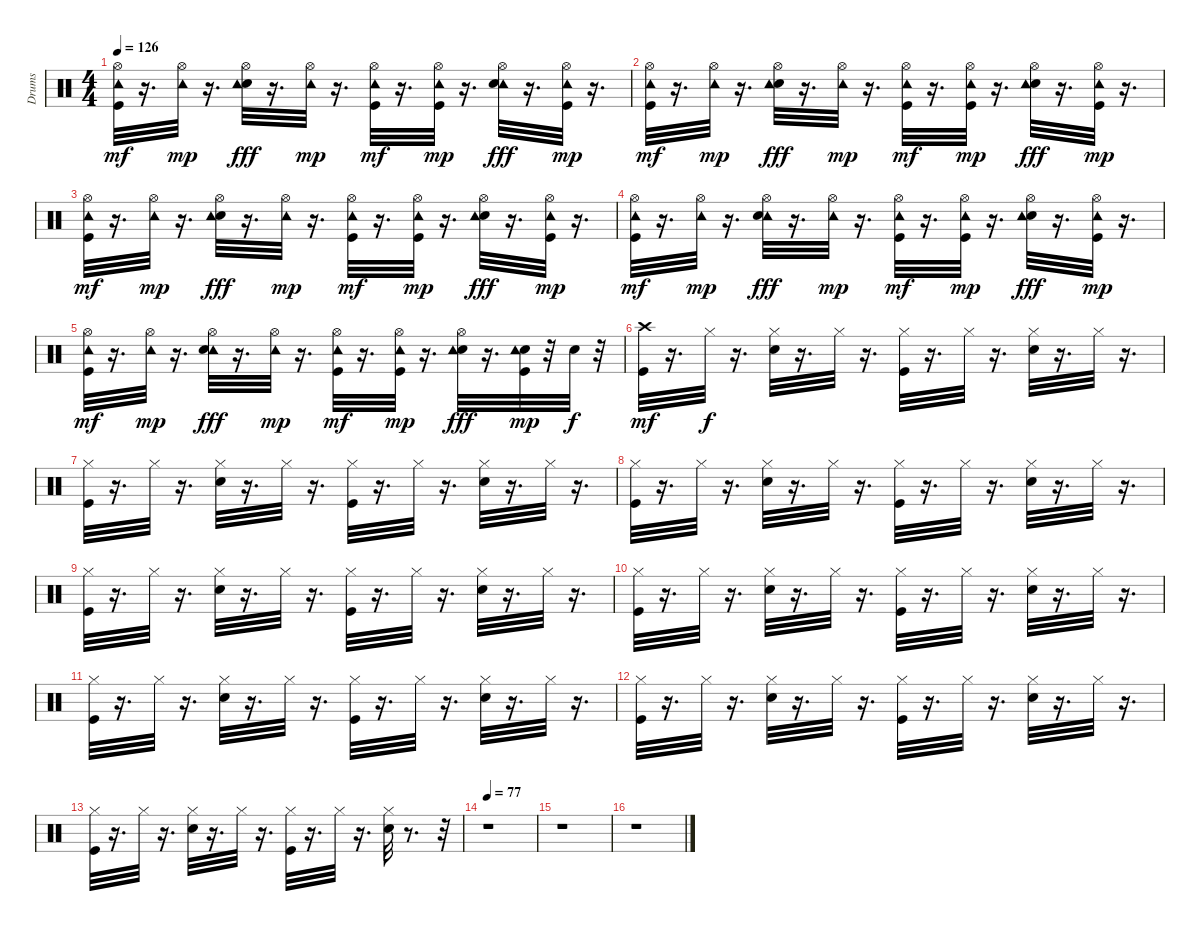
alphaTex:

\track ("Drums" "Drums") {instrument percussion}
\staff {score}
\articulation defaults
\ts (4 4)
\tempo 126
\clef neutral
\ks c
("Hi-Hat (open)" "Kick (hit)" "Tambourine (hit)").32{dy mf} r.16{d} ("Hi-Hat (open)" "Tambourine (hit)").32{dy mp} r.16{d} ("Hi-Hat (open)" "Snare (hit) 2" "Tambourine (hit)").32{dy fff} r.16{d} ("Hi-Hat (open)" "Tambourine (hit)").32{dy mp} r.16{d} ("Hi-Hat (open)" "Tambourine (hit)" "Kick (hit)").32{dy mf} r.16{d} ("Hi-Hat (open)" "Tambourine (hit)" "Kick (hit)").32{dy mp} r.16{d} ("Hi-Hat (open)" "Tambourine (hit)" "Snare (hit) 2").32{dy fff} r.16{d} ("Hi-Hat (open)" "Tambourine (hit)" "Kick (hit)").32{dy mp} r.16{d} |
("Hi-Hat (open)" "Tambourine (hit)" "Kick (hit)").32{dy mf} r.16{d} ("Hi-Hat (open)" "Tambourine (hit)").32{dy mp} r.16{d} ("Hi-Hat (open)" "Snare (hit) 2" "Tambourine (hit)").32{dy fff} r.16{d} ("Hi-Hat (open)" "Tambourine (hit)").32{dy mp} r.16{d} ("Hi-Hat (open)" "Kick (hit)" "Tambourine (hit)").32{dy mf} r.16{d} ("Hi-Hat (open)" "Tambourine (hit)" "Kick (hit)").32{dy mp} r.16{d} ("Hi-Hat (open)" "Snare (hit) 2" "Tambourine (hit)").32{dy fff} r.16{d} ("Hi-Hat (open)" "Kick (hit)" "Tambourine (hit)").32{dy mp} r.16{d} |
("Hi-Hat (open)" "Kick (hit)" "Tambourine (hit)").32{dy mf} r.16{d} ("Hi-Hat (open)" "Tambourine (hit)").32{dy mp} r.16{d} ("Hi-Hat (open)" "Snare (hit) 2" "Tambourine (hit)").32{dy fff} r.16{d} ("Hi-Hat (open)" "Tambourine (hit)").32{dy mp} r.16{d} ("Hi-Hat (open)" "Tambourine (hit)" "Kick (hit)").32{dy mf} r.16{d} ("Hi-Hat (open)" "Tambourine (hit)" "Kick (hit)").32{dy mp} r.16{d} ("Hi-Hat (open)" "Snare (hit) 2" "Tambourine (hit)").32{dy fff} r.16{d} ("Hi-Hat (open)" "Tambourine (hit)" "Kick (hit)").32{dy mp} r.16{d} |
("Hi-Hat (open)" "Kick (hit)" "Tambourine (hit)").32{dy mf} r.16{d} ("Hi-Hat (open)" "Tambourine (hit)").32{dy mp} r.16{d} ("Hi-Hat (open)" "Tambourine (hit)" "Snare (hit) 2").32{dy fff} r.16{d} ("Hi-Hat (open)" "Tambourine (hit)").32{dy mp} r.16{d} ("Hi-Hat (open)" "Kick (hit)" "Tambourine (hit)").32{dy mf} r.16{d} ("Hi-Hat (open)" "Kick (hit)" "Tambourine (hit)").32{dy mp} r.16{d} ("Hi-Hat (open)" "Snare (hit) 2" "Tambourine (hit)").32{dy fff} r.16{d} ("Hi-Hat (open)" "Kick (hit)" "Tambourine (hit)").32{dy mp} r.16{d} |
("Hi-Hat (open)" "Tambourine (hit)" "Kick (hit)").32{dy mf} r.16{d} ("Hi-Hat (open)" "Tambourine (hit)").32{dy mp} r.16{d} ("Hi-Hat (open)" "Tambourine (hit)" "Snare (hit) 2").32{dy fff} r.16{d} ("Hi-Hat (open)" "Tambourine (hit)").32{dy mp} r.16{d} ("Hi-Hat (open)" "Kick (hit)" "Tambourine (hit)").32{dy mf} r.16{d} ("Hi-Hat (open)" "Kick (hit)" "Tambourine (hit)").32{dy mp} r.16{d} ("Hi-Hat (open)" "Snare (hit) 2" "Tambourine (hit)").32{dy fff} r.16{d} ("Kick (hit)" "Snare (hit) 2" "Tambourine (hit)").32{dy mp} r.32 "Snare (hit) 2".32{dy f} r.32 |
("Kick (hit)" "Crash high (hit)").32{dy mf} r.16{d} "Hi-Hat (closed)".32{dy f} r.16{d} ("Hi-Hat (closed)" "Snare (hit) 2").32 r.16{d} "Hi-Hat (closed)".32 r.16{d} ("Hi-Hat (closed)" "Kick (hit)").32 r.16{d} "Hi-Hat (closed)".32 r.16{d} ("Snare (hit) 2" "Hi-Hat (closed)").32 r.16{d} "Hi-Hat (closed)".32 r.16{d} |
("Kick (hit)" "Hi-Hat (closed)").32 r.16{d} "Hi-Hat (closed)".32 r.16{d} ("Snare (hit) 2" "Hi-Hat (closed)").32 r.16{d} "Hi-Hat (closed)".32 r.16{d} ("Kick (hit)" "Hi-Hat (closed)").32 r.16{d} "Hi-Hat (closed)".32 r.16{d} ("Snare (hit) 2" "Hi-Hat (closed)").32 r.16{d} "Hi-Hat (closed)".32 r.16{d} |
("Hi-Hat (closed)" "Kick (hit)").32 r.16{d} "Hi-Hat (closed)".32 r.16{d} ("Hi-Hat (closed)" "Snare (hit) 2").32 r.16{d} "Hi-Hat (closed)".32 r.16{d} ("Hi-Hat (closed)" "Kick (hit)").32 r.16{d} "Hi-Hat (closed)".32 r.16{d} ("Hi-Hat (closed)" "Snare (hit) 2").32 r.16{d} "Hi-Hat (closed)".32 r.16{d} |
("Hi-Hat (closed)" "Kick (hit)").32 r.16{d} "Hi-Hat (closed)".32 r.16{d} ("Hi-Hat (closed)" "Snare (hit) 2").32 r.16{d} "Hi-Hat (closed)".32 r.16{d} ("Hi-Hat (closed)" "Kick (hit)").32 r.16{d} "Hi-Hat (closed)".32 r.16{d} ("Hi-Hat (closed)" "Snare (hit) 2").32 r.16{d} "Hi-Hat (closed)".32 r.16{d} |
("Kick (hit)" "Hi-Hat (closed)").32 r.16{d} "Hi-Hat (closed)".32 r.16{d} ("Snare (hit) 2" "Hi-Hat (closed)").32 r.16{d} "Hi-Hat (closed)".32 r.16{d} ("Kick (hit)" "Hi-Hat (closed)").32 r.16{d} "Hi-Hat (closed)".32 r.16{d} ("Snare (hit) 2" "Hi-Hat (closed)").32 r.16{d} "Hi-Hat (closed)".32 r.16{d} |
("Hi-Hat (closed)" "Kick (hit)").32 r.16{d} "Hi-Hat (closed)".32 r.16{d} ("Hi-Hat (closed)" "Snare (hit) 2").32 r.16{d} "Hi-Hat (closed)".32 r.16{d} ("Hi-Hat (closed)" "Kick (hit)").32 r.16{d} "Hi-Hat (closed)".32 r.16{d} ("Snare (hit) 2" "Hi-Hat (closed)").32 r.16{d} "Hi-Hat (closed)".32 r.16{d} |
("Hi-Hat (closed)" "Kick (hit)").32 r.16{d} "Hi-Hat (closed)".32 r.16{d} ("Hi-Hat (closed)" "Snare (hit) 2").32 r.16{d} "Hi-Hat (closed)".32 r.16{d} ("Kick (hit)" "Hi-Hat (closed)").32 r.16{d} "Hi-Hat (closed)".32 r.16{d} ("Hi-Hat (closed)" "Snare (hit) 2").32 r.16{d} "Hi-Hat (closed)".32 r.16{d} |
("Kick (hit)" "Hi-Hat (closed)").32 r.16{d} "Hi-Hat (closed)".32 r.16{d} ("Snare (hit) 2" "Hi-Hat (closed)").32 r.16{d} "Hi-Hat (closed)".32 r.16{d} ("Kick (hit)" "Hi-Hat (closed)").32 r.16{d} "Hi-Hat (closed)".32 r.16{d} ("Snare (hit) 2" "Hi-Hat (closed)").32 r.8{d} r.32 |
\tempo 77
r.1 |
r.1 |
r.1
